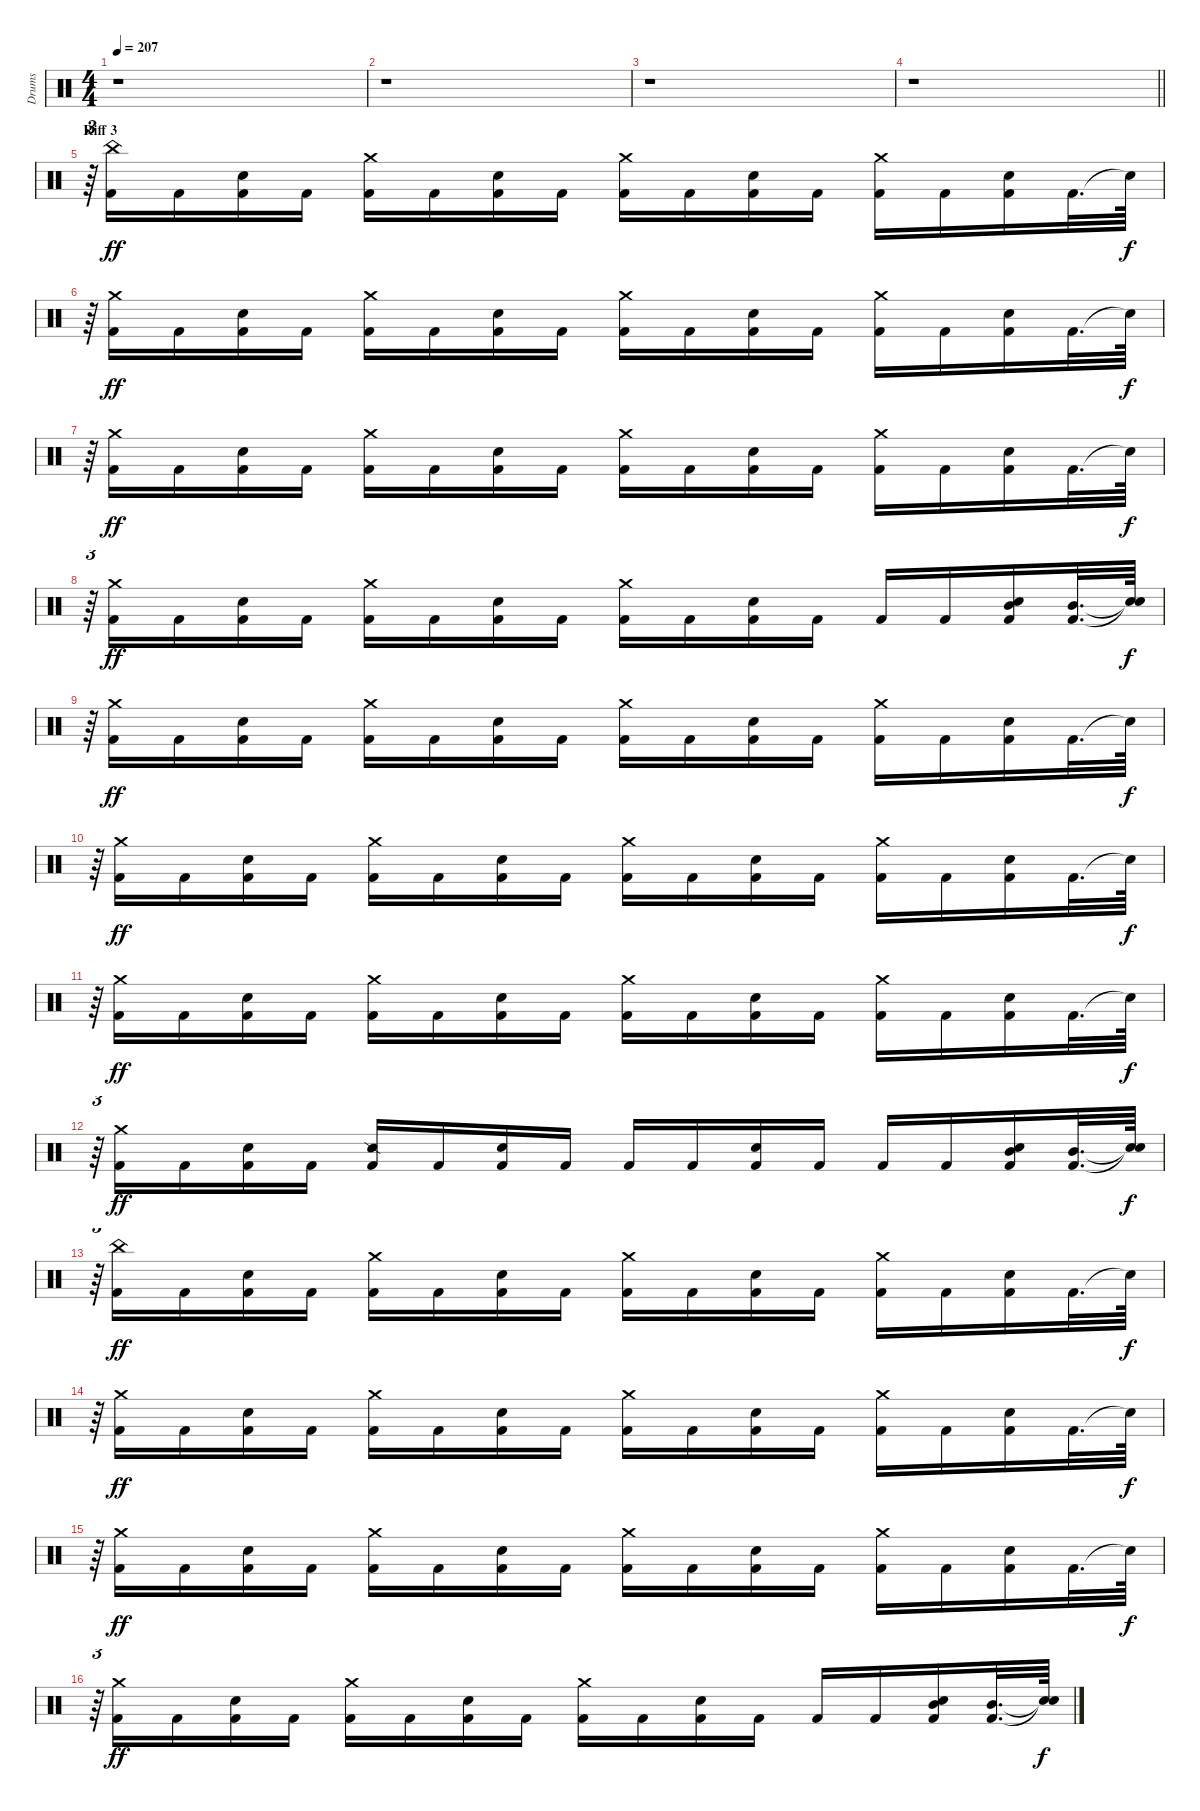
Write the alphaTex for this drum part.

\track ("Drums" "Drums") {instrument percussion}
\staff {score}
\articulation defaults
\ts (4 4)
\tempo 207
\clef neutral
\ks c
r.1{dy ff} |
r.1 |
r.1 |
\barLineRight lightlight
r.1 |
\section ("" "Riff 3")
r.64{tu (3 2)} ("Kick (hit) 2" "China (hit)").16 "Kick (hit) 2".16 ("Kick (hit) 2" "Snare (hit) 2").16 "Kick (hit) 2".16 ("Kick (hit) 2" "Crash medium (hit)").16 "Kick (hit) 2".16 ("Kick (hit) 2" "Snare (hit) 2").16 "Kick (hit) 2".16 ("Kick (hit) 2" "Crash medium (hit)").16 "Kick (hit) 2".16 ("Kick (hit) 2" "Snare (hit) 2").16 "Kick (hit) 2".16 ("Kick (hit) 2" "Crash medium (hit)").16 "Kick (hit) 2".16 ("Kick (hit) 2" "Snare (hit) 2").16 "Kick (hit) 2".32{d} "Snare (hit)"{t}.64{dy f} |
r.64{tu (3 2)} ("Kick (hit) 2" "Crash medium (hit)").16{dy ff} "Kick (hit) 2".16 ("Kick (hit) 2" "Snare (hit) 2").16 "Kick (hit) 2".16 ("Kick (hit) 2" "Crash medium (hit)").16 "Kick (hit) 2".16 ("Kick (hit) 2" "Snare (hit) 2").16 "Kick (hit) 2".16 ("Kick (hit) 2" "Crash medium (hit)").16 "Kick (hit) 2".16 ("Kick (hit) 2" "Snare (hit) 2").16 "Kick (hit) 2".16 ("Kick (hit) 2" "Crash medium (hit)").16 "Kick (hit) 2".16 ("Kick (hit) 2" "Snare (hit) 2").16 "Kick (hit) 2".32{d} "Snare (hit)"{t}.64{dy f} |
r.64{tu (3 2)} ("Kick (hit) 2" "Crash medium (hit)").16{dy ff} "Kick (hit) 2".16 ("Kick (hit) 2" "Snare (hit) 2").16 "Kick (hit) 2".16 ("Kick (hit) 2" "Crash medium (hit)").16 "Kick (hit) 2".16 ("Kick (hit) 2" "Snare (hit) 2").16 "Kick (hit) 2".16 ("Kick (hit) 2" "Crash medium (hit)").16 "Kick (hit) 2".16 ("Kick (hit) 2" "Snare (hit) 2").16 "Kick (hit) 2".16 ("Kick (hit) 2" "Crash medium (hit)").16 "Kick (hit) 2".16 ("Kick (hit) 2" "Snare (hit) 2").16 "Kick (hit) 2".32{d} "Snare (hit)"{t}.64{dy f} |
r.64{tu (3 2)} ("Kick (hit) 2" "Crash medium (hit)").16{dy ff} "Kick (hit) 2".16 ("Kick (hit) 2" "Snare (hit) 2").16 "Kick (hit) 2".16 ("Kick (hit) 2" "Crash medium (hit)").16 "Kick (hit) 2".16 ("Kick (hit) 2" "Snare (hit) 2").16 "Kick (hit) 2".16 ("Kick (hit) 2" "Crash medium (hit)").16 "Kick (hit) 2".16 ("Kick (hit) 2" "Snare (hit) 2").16 "Kick (hit) 2".16 "Kick (hit) 2".16 "Kick (hit) 2".16 ("Kick (hit) 2" "Snare (hit) 2" "Mid Tom (hit)").16 ("Kick (hit) 2" "Mid Tom (hit)").32{d} ("Snare (hit)"{t} "Snare (hit)"{t}).64{dy f} |
r.64{tu (3 2)} ("Kick (hit) 2" "Crash medium (hit)").16{dy ff} "Kick (hit) 2".16 ("Kick (hit) 2" "Snare (hit) 2").16 "Kick (hit) 2".16 ("Kick (hit) 2" "Crash medium (hit)").16 "Kick (hit) 2".16 ("Kick (hit) 2" "Snare (hit) 2").16 "Kick (hit) 2".16 ("Kick (hit) 2" "Crash medium (hit)").16 "Kick (hit) 2".16 ("Kick (hit) 2" "Snare (hit) 2").16 "Kick (hit) 2".16 ("Kick (hit) 2" "Crash medium (hit)").16 "Kick (hit) 2".16 ("Kick (hit) 2" "Snare (hit) 2").16 "Kick (hit) 2".32{d} "Snare (hit)"{t}.64{dy f} |
r.64{tu (3 2)} ("Kick (hit) 2" "Crash medium (hit)").16{dy ff} "Kick (hit) 2".16 ("Kick (hit) 2" "Snare (hit) 2").16 "Kick (hit) 2".16 ("Kick (hit) 2" "Crash medium (hit)").16 "Kick (hit) 2".16 ("Kick (hit) 2" "Snare (hit) 2").16 "Kick (hit) 2".16 ("Kick (hit) 2" "Crash medium (hit)").16 "Kick (hit) 2".16 ("Kick (hit) 2" "Snare (hit) 2").16 "Kick (hit) 2".16 ("Kick (hit) 2" "Crash medium (hit)").16 "Kick (hit) 2".16 ("Kick (hit) 2" "Snare (hit) 2").16 "Kick (hit) 2".32{d} "Snare (hit)"{t}.64{dy f} |
r.64{tu (3 2)} ("Kick (hit) 2" "Crash medium (hit)").16{dy ff} "Kick (hit) 2".16 ("Kick (hit) 2" "Snare (hit) 2").16 "Kick (hit) 2".16 ("Kick (hit) 2" "Crash medium (hit)").16 "Kick (hit) 2".16 ("Kick (hit) 2" "Snare (hit) 2").16 "Kick (hit) 2".16 ("Kick (hit) 2" "Crash medium (hit)").16 "Kick (hit) 2".16 ("Kick (hit) 2" "Snare (hit) 2").16 "Kick (hit) 2".16 ("Kick (hit) 2" "Crash medium (hit)").16 "Kick (hit) 2".16 ("Kick (hit) 2" "Snare (hit) 2").16 "Kick (hit) 2".32{d} "Snare (hit)"{t}.64{dy f} |
r.64{tu (3 2)} ("Kick (hit) 2" "Crash medium (hit)").16{dy ff} "Kick (hit) 2".16 ("Kick (hit) 2" "Snare (hit) 2").16 "Kick (hit) 2".16 ("Kick (hit) 2" "Snare (side stick) 2").16 "Kick (hit) 2".16 ("Kick (hit) 2" "Snare (hit) 2").16 "Kick (hit) 2".16 "Kick (hit) 2".16 "Kick (hit) 2".16 ("Kick (hit) 2" "Snare (hit) 2").16 "Kick (hit) 2".16 "Kick (hit) 2".16 "Kick (hit) 2".16 ("Kick (hit) 2" "Snare (hit) 2" "Mid Tom (hit)").16 ("Kick (hit) 2" "Mid Tom (hit)").32{d} ("Snare (hit)"{t} "Snare (hit)"{t}).64{dy f} |
r.64{tu (3 2)} ("Kick (hit) 2" "China (hit)").16{dy ff} "Kick (hit) 2".16 ("Kick (hit) 2" "Snare (hit) 2").16 "Kick (hit) 2".16 ("Kick (hit) 2" "Crash medium (hit)").16 "Kick (hit) 2".16 ("Kick (hit) 2" "Snare (hit) 2").16 "Kick (hit) 2".16 ("Kick (hit) 2" "Crash medium (hit)").16 "Kick (hit) 2".16 ("Kick (hit) 2" "Snare (hit) 2").16 "Kick (hit) 2".16 ("Kick (hit) 2" "Crash medium (hit)").16 "Kick (hit) 2".16 ("Kick (hit) 2" "Snare (hit) 2").16 "Kick (hit) 2".32{d} "Snare (hit)"{t}.64{dy f} |
r.64{tu (3 2)} ("Kick (hit) 2" "Crash medium (hit)").16{dy ff} "Kick (hit) 2".16 ("Kick (hit) 2" "Snare (hit) 2").16 "Kick (hit) 2".16 ("Kick (hit) 2" "Crash medium (hit)").16 "Kick (hit) 2".16 ("Kick (hit) 2" "Snare (hit) 2").16 "Kick (hit) 2".16 ("Kick (hit) 2" "Crash medium (hit)").16 "Kick (hit) 2".16 ("Kick (hit) 2" "Snare (hit) 2").16 "Kick (hit) 2".16 ("Kick (hit) 2" "Crash medium (hit)").16 "Kick (hit) 2".16 ("Kick (hit) 2" "Snare (hit) 2").16 "Kick (hit) 2".32{d} "Snare (hit)"{t}.64{dy f} |
r.64{tu (3 2)} ("Kick (hit) 2" "Crash medium (hit)").16{dy ff} "Kick (hit) 2".16 ("Kick (hit) 2" "Snare (hit) 2").16 "Kick (hit) 2".16 ("Kick (hit) 2" "Crash medium (hit)").16 "Kick (hit) 2".16 ("Kick (hit) 2" "Snare (hit) 2").16 "Kick (hit) 2".16 ("Kick (hit) 2" "Crash medium (hit)").16 "Kick (hit) 2".16 ("Kick (hit) 2" "Snare (hit) 2").16 "Kick (hit) 2".16 ("Kick (hit) 2" "Crash medium (hit)").16 "Kick (hit) 2".16 ("Kick (hit) 2" "Snare (hit) 2").16 "Kick (hit) 2".32{d} "Snare (hit)"{t}.64{dy f} |
r.64{tu (3 2)} ("Kick (hit) 2" "Crash medium (hit)").16{dy ff} "Kick (hit) 2".16 ("Kick (hit) 2" "Snare (hit) 2").16 "Kick (hit) 2".16 ("Kick (hit) 2" "Crash medium (hit)").16 "Kick (hit) 2".16 ("Kick (hit) 2" "Snare (hit) 2").16 "Kick (hit) 2".16 ("Kick (hit) 2" "Crash medium (hit)").16 "Kick (hit) 2".16 ("Kick (hit) 2" "Snare (hit) 2").16 "Kick (hit) 2".16 "Kick (hit) 2".16 "Kick (hit) 2".16 ("Kick (hit) 2" "Snare (hit) 2" "Mid Tom (hit)").16 ("Kick (hit) 2" "Mid Tom (hit)").32{d} ("Snare (hit)"{t} "Snare (hit)"{t}).64{dy f}
